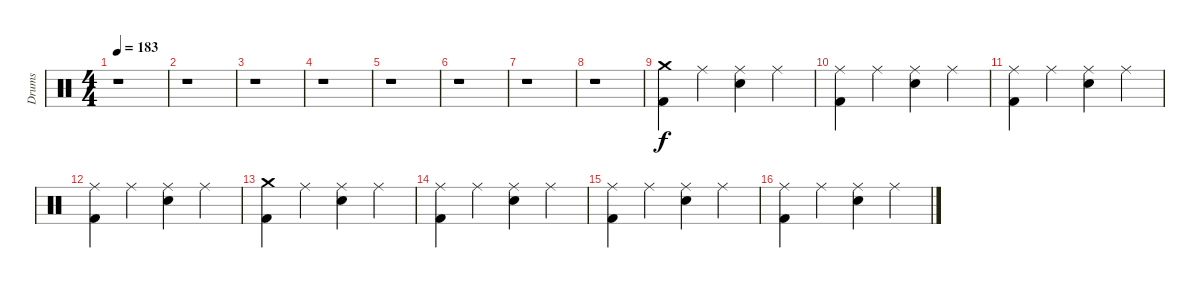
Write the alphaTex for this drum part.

\track ("Drums" "Drums") {instrument percussion}
\staff {score}
\articulation defaults
\ts (4 4)
\tempo 183
\clef neutral
\ks c
r.1{dy f} |
r.1 |
r.1 |
r.1 |
r.1 |
r.1 |
r.1 |
r.1 |
("Crash medium (hit)" "Kick (hit) 2").4 "Ride (middle)".4 ("Ride (middle)" "Electric Snare (hit)").4 "Ride (middle)".4 |
("Ride (middle)" "Kick (hit) 2").4 "Ride (middle)".4 ("Ride (middle)" "Electric Snare (hit)").4 "Ride (middle)".4 |
("Ride (middle)" "Kick (hit) 2").4 "Ride (middle)".4 ("Ride (middle)" "Electric Snare (hit)").4 "Ride (middle)".4 |
("Ride (middle)" "Kick (hit) 2").4 "Ride (middle)".4 ("Ride (middle)" "Electric Snare (hit)").4 "Ride (middle)".4 |
("Crash medium (hit)" "Kick (hit) 2").4 "Ride (middle)".4 ("Ride (middle)" "Electric Snare (hit)").4 "Ride (middle)".4 |
("Ride (middle)" "Kick (hit) 2").4 "Ride (middle)".4 ("Ride (middle)" "Electric Snare (hit)").4 "Ride (middle)".4 |
("Ride (middle)" "Kick (hit) 2").4 "Ride (middle)".4 ("Ride (middle)" "Electric Snare (hit)").4 "Ride (middle)".4 |
("Ride (middle)" "Kick (hit) 2").4 "Ride (middle)".4 ("Ride (middle)" "Electric Snare (hit)").4 "Ride (middle)".4
